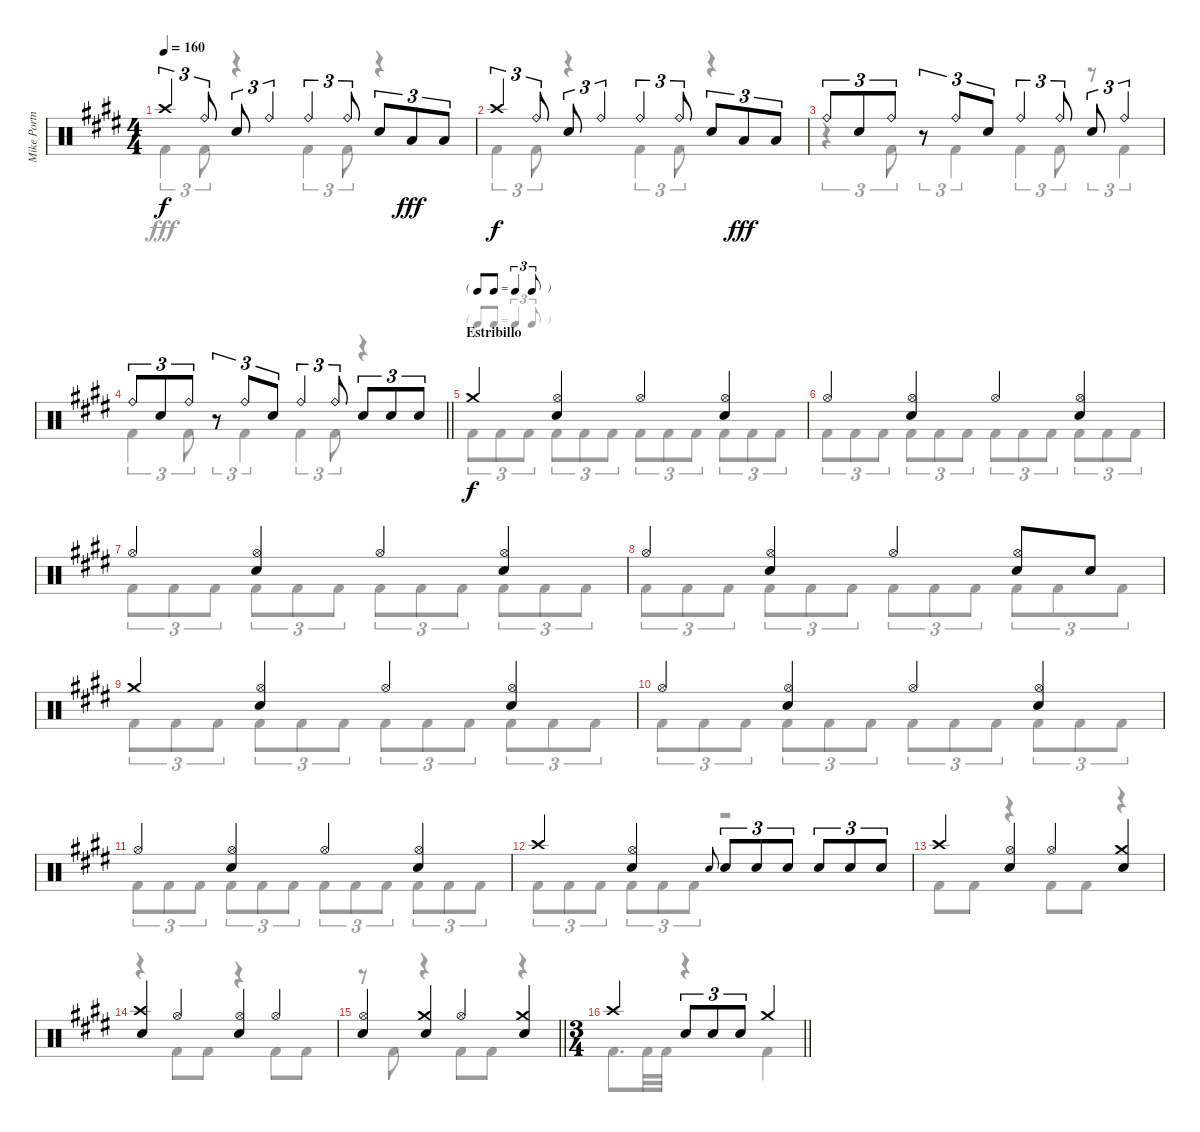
\track ("Mike Portnoy" "Mike Portn") {instrument percussion}
\staff {score}
\articulation defaults
\voice
\ts (4 4)
\tempo 160
\clef neutral
\ks e "Crash high (hit)".4{tu (3 2) dy f} "Ride (bell)".8{tu (3 2)} "Snare (hit) 2".8{tu (3 2)} "Ride (bell)".4{tu (3 2)} "Ride (bell)".4{tu (3 2)} "Ride (bell)".8{tu (3 2)} "Snare (hit) 2".8{tu (3 2)} "Low Tom (hit)".8{tu (3 2) dy fff volume 16} "Low Tom (hit)".8{tu (3 2)}
|
"Crash high (hit)".4{tu (3 2) dy f volume 13} "Ride (bell)".8{tu (3 2)} "Snare (hit) 2".8{tu (3 2)} "Ride (bell)".4{tu (3 2)} "Ride (bell)".4{tu (3 2)} "Ride (bell)".8{tu (3 2)} "Snare (hit) 2".8{tu (3 2)} "Low Tom (hit)".8{tu (3 2) dy fff volume 16} "Low Tom (hit)".8{tu (3 2)} |
"Ride (bell)".8{tu (3 2) volume 13} "Snare (hit) 2".8{tu (3 2)} "Ride (bell)".8{tu (3 2)} r.8{tu (3 2)} "Ride (bell)".8{tu (3 2)} "Snare (hit) 2".8{tu (3 2)} "Ride (bell)".4{tu (3 2)} "Ride (bell)".8{tu (3 2)} "Snare (hit) 2".8{tu (3 2)} "Ride (bell)".4{tu (3 2)} |
\barLineRight lightlight "Ride (bell)".8{tu (3 2)} "Snare (hit) 2".8{tu (3 2)} "Ride (bell)".8{tu (3 2)}
r.8{tu (3 2)} "Ride (bell)".8{tu (3 2)} "Snare (hit) 2".8{tu (3 2)} "Ride (bell)".4{tu (3 2)} "Ride (bell)".8{tu (3 2)} "Snare (hit) 2".8{tu (3 2)} "Snare (hit) 2".8{tu (3 2)} "Snare (hit) 2".8{tu (3 2)} |
\tf triplet8th
\section ("" "Estribillo")
"Crash medium (hit)".4{dy f} ("Hi-Hat (open)" "Snare (hit) 2").4 "Hi-Hat (open)".4 ("Hi-Hat (open)" "Snare (hit) 2").4 |
"Hi-Hat (open)".4 ("Hi-Hat (open)" "Snare (hit) 2").4 "Hi-Hat (open)".4 ("Hi-Hat (open)" "Snare (hit) 2").4 |
"Hi-Hat (open)".4 ("Hi-Hat (open)" "Snare (hit) 2").4 "Hi-Hat (open)".4 ("Hi-Hat (open)" "Snare (hit) 2").4 |
"Hi-Hat (open)".4 ("Hi-Hat (open)" "Snare (hit) 2").4 "Hi-Hat (open)".4 ("Hi-Hat (open)" "Snare (hit) 2").8 "Snare (hit) 2".8 |
"Crash medium (hit)".4 ("Hi-Hat (open)" "Snare (hit) 2").4 "Hi-Hat (open)".4 ("Hi-Hat (open)" "Snare (hit) 2").4 |
"Hi-Hat (open)".4 ("Hi-Hat (open)" "Snare (hit) 2").4 "Hi-Hat (open)".4 ("Hi-Hat (open)" "Snare (hit) 2").4 |
"Hi-Hat (open)".4 ("Hi-Hat (open)" "Snare (hit) 2").4 "Hi-Hat (open)".4 ("Hi-Hat (open)" "Snare (hit) 2").4 |
"Crash high (hit)".4 ("Hi-Hat (open)" "Snare (hit) 2").4 "Snare (hit) 2".8{gr onbeat} "Snare (hit) 2".8{tu (3 2)} "Snare (hit) 2".8{tu (3 2)} "Snare (hit) 2".8{tu (3 2)} "Snare (hit) 2".8{tu (3 2)} "Snare (hit) 2".8{tu (3 2)} "Snare (hit) 2".8{tu (3 2)} |
"Crash high (hit)".4{volume 13} ("Hi-Hat (open)" "Snare (hit) 2").4 "Hi-Hat (open)".4 ("Crash medium (hit)" "Snare (hit) 2").4 |
("Crash high (hit)" "Snare (hit) 2").4 "Hi-Hat (open)".4 ("Hi-Hat (open)" "Snare (hit) 2").4 "Hi-Hat (open)".4 |
\barLineRight lightlight
("Hi-Hat (open)" "Snare (hit) 2").4 ("Crash medium (hit)" "Snare (hit) 2").4 "Hi-Hat (open)".4 ("Crash medium (hit)" "Snare (hit) 2").4 |
\ts (3 4)
\barLineRight lightlight "Crash high (hit)".4 "Snare (hit) 2".8{tu (3 2)} "Snare (hit) 2".8{tu (3 2)} "Snare (hit) 2".8{tu (3 2)} "Crash medium (hit)".4
\voice
\clef neutral
\ottava regular
\simile none
\ks e "Kick (hit) 2".4{tu (3 2) dy fff} "Kick (hit) 2".8{tu (3 2)}
r.4 "Kick (hit) 2".4{tu (3 2)} "Kick (hit) 2".8{tu (3 2)} r.4 |
"Kick (hit) 2".4{tu (3 2)} "Kick (hit) 2".8{tu (3 2)} r.4 "Kick (hit) 2".4{tu (3 2)} "Kick (hit) 2".8{tu (3 2)} r.4 |
r.4{tu (3 2)} "Kick (hit) 2".8{tu (3 2)} r.8{tu (3 2)} "Kick (hit) 2".4{tu (3 2)} "Kick (hit) 2".4{tu (3 2)} "Kick (hit) 2".8{tu (3 2)} r.8{tu (3 2)} "Kick (hit) 2".4{tu (3 2)} |
\barLineRight lightlight "Kick (hit) 2".4{tu (3 2)} "Kick (hit) 2".8{tu (3 2)}
r.8{tu (3 2)} "Kick (hit) 2".4{tu (3 2)} "Kick (hit) 2".4{tu (3 2)} "Kick (hit) 2".8{tu (3 2)} r.4 |
"Kick (hit) 2".8{tu (3 2) dy f} "Kick (hit) 2".8{tu (3 2)} "Kick (hit) 2".8{tu (3 2)} "Kick (hit) 2".8{tu (3 2)} "Kick (hit) 2".8{tu (3 2)} "Kick (hit) 2".8{tu (3 2)} "Kick (hit) 2".8{tu (3 2)} "Kick (hit) 2".8{tu (3 2)} "Kick (hit) 2".8{tu (3 2)} "Kick (hit) 2".8{tu (3 2)} "Kick (hit) 2".8{tu (3 2)} "Kick (hit) 2".8{tu (3 2)} |
"Kick (hit) 2".8{tu (3 2)} "Kick (hit) 2".8{tu (3 2)} "Kick (hit) 2".8{tu (3 2)} "Kick (hit) 2".8{tu (3 2)} "Kick (hit) 2".8{tu (3 2)} "Kick (hit) 2".8{tu (3 2)} "Kick (hit) 2".8{tu (3 2)} "Kick (hit) 2".8{tu (3 2)} "Kick (hit) 2".8{tu (3 2)} "Kick (hit) 2".8{tu (3 2)} "Kick (hit) 2".8{tu (3 2)} "Kick (hit) 2".8{tu (3 2)} |
"Kick (hit) 2".8{tu (3 2)} "Kick (hit) 2".8{tu (3 2)} "Kick (hit) 2".8{tu (3 2)} "Kick (hit) 2".8{tu (3 2)} "Kick (hit) 2".8{tu (3 2)} "Kick (hit) 2".8{tu (3 2)} "Kick (hit) 2".8{tu (3 2)} "Kick (hit) 2".8{tu (3 2)} "Kick (hit) 2".8{tu (3 2)} "Kick (hit) 2".8{tu (3 2)} "Kick (hit) 2".8{tu (3 2)} "Kick (hit) 2".8{tu (3 2)} |
"Kick (hit) 2".8{tu (3 2)} "Kick (hit) 2".8{tu (3 2)} "Kick (hit) 2".8{tu (3 2)} "Kick (hit) 2".8{tu (3 2)} "Kick (hit) 2".8{tu (3 2)} "Kick (hit) 2".8{tu (3 2)} "Kick (hit) 2".8{tu (3 2)} "Kick (hit) 2".8{tu (3 2)} "Kick (hit) 2".8{tu (3 2)} "Kick (hit) 2".8{tu (3 2)} "Kick (hit) 2".8{tu (3 2)} "Kick (hit) 2".8{tu (3 2)} |
"Kick (hit) 2".8{tu (3 2)} "Kick (hit) 2".8{tu (3 2)} "Kick (hit) 2".8{tu (3 2)} "Kick (hit) 2".8{tu (3 2)} "Kick (hit) 2".8{tu (3 2)} "Kick (hit) 2".8{tu (3 2)} "Kick (hit) 2".8{tu (3 2)} "Kick (hit) 2".8{tu (3 2)} "Kick (hit) 2".8{tu (3 2)} "Kick (hit) 2".8{tu (3 2)} "Kick (hit) 2".8{tu (3 2)} "Kick (hit) 2".8{tu (3 2)} |
"Kick (hit) 2".8{tu (3 2)} "Kick (hit) 2".8{tu (3 2)} "Kick (hit) 2".8{tu (3 2)} "Kick (hit) 2".8{tu (3 2)} "Kick (hit) 2".8{tu (3 2)} "Kick (hit) 2".8{tu (3 2)} "Kick (hit) 2".8{tu (3 2)} "Kick (hit) 2".8{tu (3 2)} "Kick (hit) 2".8{tu (3 2)} "Kick (hit) 2".8{tu (3 2)} "Kick (hit) 2".8{tu (3 2)} "Kick (hit) 2".8{tu (3 2)} |
"Kick (hit) 2".8{tu (3 2)} "Kick (hit) 2".8{tu (3 2)} "Kick (hit) 2".8{tu (3 2)} "Kick (hit) 2".8{tu (3 2)} "Kick (hit) 2".8{tu (3 2)} "Kick (hit) 2".8{tu (3 2)} "Kick (hit) 2".8{tu (3 2)} "Kick (hit) 2".8{tu (3 2)} "Kick (hit) 2".8{tu (3 2)} "Kick (hit) 2".8{tu (3 2)} "Kick (hit) 2".8{tu (3 2)} "Kick (hit) 2".8{tu (3 2)} |
"Kick (hit) 2".8{tu (3 2)} "Kick (hit) 2".8{tu (3 2)} "Kick (hit) 2".8{tu (3 2)} "Kick (hit) 2".8{tu (3 2)} "Kick (hit) 2".8{tu (3 2)} "Kick (hit) 2".8{tu (3 2)} r.2 |
"Kick (hit) 2".8 "Kick (hit) 2".8 r.4 "Kick (hit) 2".8 "Kick (hit) 2".8 r.4 |
r.4 "Kick (hit) 2".8 "Kick (hit) 2".8 r.4 "Kick (hit) 2".8 "Kick (hit) 2".8 |
\barLineRight lightlight
r.8 "Kick (hit) 2".8 r.4 "Kick (hit) 2".8 "Kick (hit) 2".8 r.4 |
\barLineRight lightlight "Kick (hit) 2".8{d} "Kick (hit) 2".32 "Kick (hit) 2".32
r.4 "Kick (hit) 2".4
